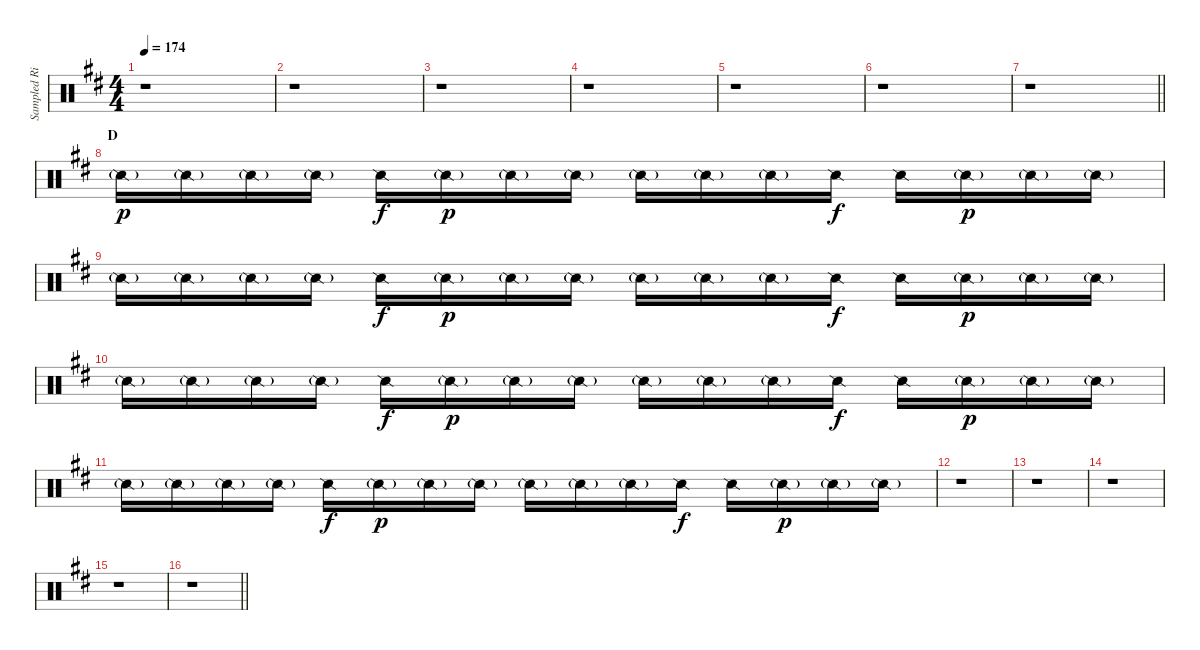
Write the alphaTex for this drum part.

\track ("Sampled Rim Shot" "Sampled Ri") {instrument percussion}
\staff {score}
\articulation defaults
\ts (4 4)
\tempo 174
\clef neutral
\ks bminor
r.1{dy p} |
r.1 |
r.1 |
r.1 |
r.1 |
r.1 |
\barLineRight lightlight
r.1 |
\section ("" "D")
"Snare (side stick) 2"{g}.16 "Snare (side stick) 2"{g}.16 "Snare (side stick) 2"{g}.16 "Snare (side stick) 2"{g}.16 "Snare (side stick) 2".16{dy f} "Snare (side stick) 2"{g}.16{dy p} "Snare (side stick) 2"{g}.16 "Snare (side stick) 2"{g}.16 "Snare (side stick) 2"{g}.16 "Snare (side stick) 2"{g}.16 "Snare (side stick) 2"{g}.16 "Snare (side stick) 2".16{dy f} "Snare (side stick) 2".16 "Snare (side stick) 2"{g}.16{dy p} "Snare (side stick) 2"{g}.16 "Snare (side stick) 2"{g}.16 |
"Snare (side stick) 2"{g}.16 "Snare (side stick) 2"{g}.16 "Snare (side stick) 2"{g}.16 "Snare (side stick) 2"{g}.16 "Snare (side stick) 2".16{dy f} "Snare (side stick) 2"{g}.16{dy p} "Snare (side stick) 2"{g}.16 "Snare (side stick) 2"{g}.16 "Snare (side stick) 2"{g}.16 "Snare (side stick) 2"{g}.16 "Snare (side stick) 2"{g}.16 "Snare (side stick) 2".16{dy f} "Snare (side stick) 2".16 "Snare (side stick) 2"{g}.16{dy p} "Snare (side stick) 2"{g}.16 "Snare (side stick) 2"{g}.16 |
"Snare (side stick) 2"{g}.16 "Snare (side stick) 2"{g}.16 "Snare (side stick) 2"{g}.16 "Snare (side stick) 2"{g}.16 "Snare (side stick) 2".16{dy f} "Snare (side stick) 2"{g}.16{dy p} "Snare (side stick) 2"{g}.16 "Snare (side stick) 2"{g}.16 "Snare (side stick) 2"{g}.16 "Snare (side stick) 2"{g}.16 "Snare (side stick) 2"{g}.16 "Snare (side stick) 2".16{dy f} "Snare (side stick) 2".16 "Snare (side stick) 2"{g}.16{dy p} "Snare (side stick) 2"{g}.16 "Snare (side stick) 2"{g}.16 |
"Snare (side stick) 2"{g}.16 "Snare (side stick) 2"{g}.16 "Snare (side stick) 2"{g}.16 "Snare (side stick) 2"{g}.16 "Snare (side stick) 2".16{dy f} "Snare (side stick) 2"{g}.16{dy p} "Snare (side stick) 2"{g}.16 "Snare (side stick) 2"{g}.16 "Snare (side stick) 2"{g}.16 "Snare (side stick) 2"{g}.16 "Snare (side stick) 2"{g}.16 "Snare (side stick) 2".16{dy f} "Snare (side stick) 2".16 "Snare (side stick) 2"{g}.16{dy p} "Snare (side stick) 2"{g}.16 "Snare (side stick) 2"{g}.16 |
r.1 |
r.1 |
r.1 |
r.1 |
\barLineRight lightlight
r.1
